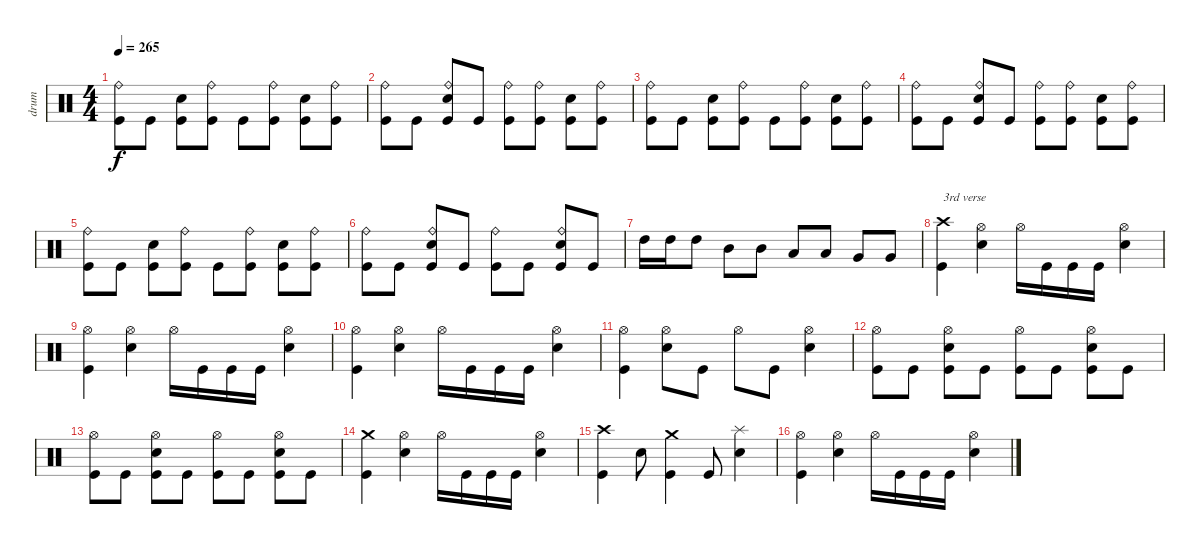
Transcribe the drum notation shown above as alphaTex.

\track ("drum" "drum") {instrument percussion}
\staff {score}
\articulation defaults
\ts (4 4)
\tempo 265
\clef neutral
\ks c
("Kick (hit)" "Ride (bell)").8{dy f} "Kick (hit)".8 ("Kick (hit)" "Electric Snare (hit)").8 ("Kick (hit)" "Ride (bell)").8 "Kick (hit)".8 ("Kick (hit)" "Ride (bell)").8 ("Kick (hit)" "Electric Snare (hit)").8 ("Kick (hit)" "Ride (bell)").8 |
("Kick (hit)" "Ride (bell)").8 "Kick (hit)".8 ("Kick (hit)" "Electric Snare (hit)" "Ride (bell)").8 "Kick (hit)".8 ("Kick (hit)" "Ride (bell)").8 ("Kick (hit)" "Ride (bell)").8 ("Kick (hit)" "Electric Snare (hit)").8 ("Kick (hit)" "Ride (bell)").8 |
("Kick (hit)" "Ride (bell)").8 "Kick (hit)".8 ("Kick (hit)" "Electric Snare (hit)").8 ("Kick (hit)" "Ride (bell)").8 "Kick (hit)".8 ("Kick (hit)" "Ride (bell)").8 ("Kick (hit)" "Electric Snare (hit)").8 ("Kick (hit)" "Ride (bell)").8 |
("Kick (hit)" "Ride (bell)").8 "Kick (hit)".8 ("Kick (hit)" "Electric Snare (hit)" "Ride (bell)").8 "Kick (hit)".8 ("Kick (hit)" "Ride (bell)").8 ("Kick (hit)" "Ride (bell)").8 ("Kick (hit)" "Electric Snare (hit)").8 ("Kick (hit)" "Ride (bell)").8 |
("Kick (hit)" "Ride (bell)").8 "Kick (hit)".8 ("Kick (hit)" "Electric Snare (hit)").8 ("Kick (hit)" "Ride (bell)").8 "Kick (hit)".8 ("Kick (hit)" "Ride (bell)").8 ("Kick (hit)" "Electric Snare (hit)").8 ("Kick (hit)" "Ride (bell)").8 |
("Kick (hit)" "Ride (bell)").8 "Kick (hit)".8 ("Kick (hit)" "Electric Snare (hit)" "Ride (bell)").8 "Kick (hit)".8 ("Kick (hit)" "Ride (bell)").8 "Kick (hit)".8 ("Kick (hit)" "Electric Snare (hit)" "Ride (bell)").8 "Kick (hit)".8 |
"High Tom (hit)".16 "High Tom (hit)".16 "High Tom (hit)".8 "Mid Tom (hit)".8 "Mid Tom (hit)".8 "Low Tom (hit)".8 "Low Tom (hit)".8 "Very Low Tom (hit)".8 "Very Low Tom (hit)".8 |
("Kick (hit)" "Crash high (hit)").4{txt "3rd verse"} ("Electric Snare (hit)" "Hi-Hat (open)").4 "Hi-Hat (open)".16 "Kick (hit)".16 "Kick (hit)".16 "Kick (hit)".16 ("Electric Snare (hit)" "Hi-Hat (open)").4 |
("Kick (hit)" "Hi-Hat (open)").4 ("Electric Snare (hit)" "Hi-Hat (open)").4 "Hi-Hat (open)".16 "Kick (hit)".16 "Kick (hit)".16 "Kick (hit)".16 ("Electric Snare (hit)" "Hi-Hat (open)").4 |
("Kick (hit)" "Hi-Hat (open)").4 ("Electric Snare (hit)" "Hi-Hat (open)").4 "Hi-Hat (open)".16 "Kick (hit)".16 "Kick (hit)".16 "Kick (hit)".16 ("Electric Snare (hit)" "Hi-Hat (open)").4 |
("Kick (hit)" "Hi-Hat (open)").4 ("Electric Snare (hit)" "Hi-Hat (open)").8 "Kick (hit)".8 "Hi-Hat (open)".8 "Kick (hit)".8 ("Electric Snare (hit)" "Hi-Hat (open)").4 |
("Kick (hit)" "Hi-Hat (open)").8 "Kick (hit)".8 ("Kick (hit)" "Electric Snare (hit)" "Hi-Hat (open)").8 "Kick (hit)".8 ("Kick (hit)" "Hi-Hat (open)").8 "Kick (hit)".8 ("Kick (hit)" "Electric Snare (hit)" "Hi-Hat (open)").8 "Kick (hit)".8 |
("Kick (hit)" "Hi-Hat (open)").8 "Kick (hit)".8 ("Kick (hit)" "Electric Snare (hit)" "Hi-Hat (open)").8 "Kick (hit)".8 ("Kick (hit)" "Hi-Hat (open)").8 "Kick (hit)".8 ("Kick (hit)" "Electric Snare (hit)" "Hi-Hat (open)").8 "Kick (hit)".8 |
("Kick (hit)" "Crash medium (hit)").4 ("Electric Snare (hit)" "Hi-Hat (open)").4 "Hi-Hat (open)".16 "Kick (hit)".16 "Kick (hit)".16 "Kick (hit)".16 ("Electric Snare (hit)" "Hi-Hat (open)").4 |
("Kick (hit)" "Crash high (hit)").4 "Electric Snare (hit)".8 ("Kick (hit)" "Crash medium (hit)").4 "Kick (hit)".8 ("Electric Snare (hit)" "Splash (hit)").4 |
("Kick (hit)" "Hi-Hat (open)").4 ("Electric Snare (hit)" "Hi-Hat (open)").4 "Hi-Hat (open)".16 "Kick (hit)".16 "Kick (hit)".16 "Kick (hit)".16 ("Electric Snare (hit)" "Hi-Hat (open)").4
